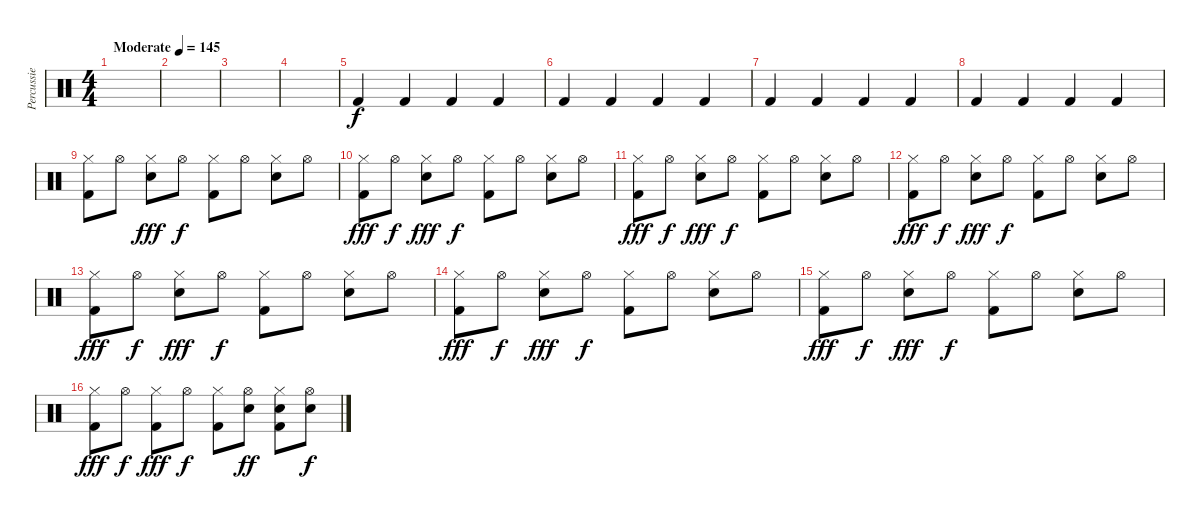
\track ("Percussie" "Percussie") {instrument percussion}
\staff {score}
\articulation defaults
\ts (4 4)
\tempo (145 "Moderate")
\clef neutral
\ks c
|
|
|
|
"Kick (hit) 2".4 "Kick (hit) 2".4 "Kick (hit) 2".4 "Kick (hit) 2".4 |
"Kick (hit) 2".4 "Kick (hit) 2".4 "Kick (hit) 2".4 "Kick (hit) 2".4 |
"Kick (hit) 2".4 "Kick (hit) 2".4 "Kick (hit) 2".4 "Kick (hit) 2".4 |
"Kick (hit) 2".4 "Kick (hit) 2".4 "Kick (hit) 2".4 "Kick (hit) 2".4 |
("Kick (hit) 2" "Hi-Hat (closed)").8 "Hi-Hat (open)".8{dy f} ("Electric Snare (hit)" "Hi-Hat (closed)").8{dy fff} "Hi-Hat (open)".8{dy f} ("Kick (hit) 2" "Hi-Hat (closed)").8 "Hi-Hat (open)".8 ("Electric Snare (hit)" "Hi-Hat (closed)").8 "Hi-Hat (open)".8 |
("Kick (hit) 2" "Hi-Hat (closed)").8{dy fff} "Hi-Hat (open)".8{dy f} ("Electric Snare (hit)" "Hi-Hat (closed)").8{dy fff} "Hi-Hat (open)".8{dy f} ("Kick (hit) 2" "Hi-Hat (closed)").8 "Hi-Hat (open)".8 ("Electric Snare (hit)" "Hi-Hat (closed)").8 "Hi-Hat (open)".8 |
("Kick (hit) 2" "Hi-Hat (closed)").8{dy fff} "Hi-Hat (open)".8{dy f} ("Electric Snare (hit)" "Hi-Hat (closed)").8{dy fff} "Hi-Hat (open)".8{dy f} ("Kick (hit) 2" "Hi-Hat (closed)").8 "Hi-Hat (open)".8 ("Electric Snare (hit)" "Hi-Hat (closed)").8 "Hi-Hat (open)".8 |
("Kick (hit) 2" "Hi-Hat (closed)").8{dy fff} "Hi-Hat (open)".8{dy f} ("Electric Snare (hit)" "Hi-Hat (closed)").8{dy fff} "Hi-Hat (open)".8{dy f} ("Kick (hit) 2" "Hi-Hat (closed)").8 "Hi-Hat (open)".8 ("Electric Snare (hit)" "Hi-Hat (closed)").8 "Hi-Hat (open)".8 |
("Kick (hit) 2" "Hi-Hat (closed)").8{dy fff} "Hi-Hat (open)".8{dy f} ("Electric Snare (hit)" "Hi-Hat (closed)").8{dy fff} "Hi-Hat (open)".8{dy f} ("Kick (hit) 2" "Hi-Hat (closed)").8 "Hi-Hat (open)".8 ("Electric Snare (hit)" "Hi-Hat (closed)").8 "Hi-Hat (open)".8 |
("Kick (hit) 2" "Hi-Hat (closed)").8{dy fff} "Hi-Hat (open)".8{dy f} ("Electric Snare (hit)" "Hi-Hat (closed)").8{dy fff} "Hi-Hat (open)".8{dy f} ("Kick (hit) 2" "Hi-Hat (closed)").8 "Hi-Hat (open)".8 ("Electric Snare (hit)" "Hi-Hat (closed)").8 "Hi-Hat (open)".8 |
("Kick (hit) 2" "Hi-Hat (closed)").8{dy fff} "Hi-Hat (open)".8{dy f} ("Electric Snare (hit)" "Hi-Hat (closed)").8{dy fff} "Hi-Hat (open)".8{dy f} ("Kick (hit) 2" "Hi-Hat (closed)").8 "Hi-Hat (open)".8 ("Electric Snare (hit)" "Hi-Hat (closed)").8 "Hi-Hat (open)".8 |
("Kick (hit) 2" "Hi-Hat (closed)").8{dy fff} "Hi-Hat (open)".8{dy f} ("Kick (hit) 2" "Hi-Hat (closed)").8{dy fff} "Hi-Hat (open)".8{dy f} ("Kick (hit) 2" "Hi-Hat (closed)").8 ("Hi-Hat (open)" "Electric Snare (hit)").8{dy ff} ("Kick (hit) 2" "Hi-Hat (closed)" "Electric Snare (hit)").8 ("Hi-Hat (open)" "Electric Snare (hit)").8{dy f}
